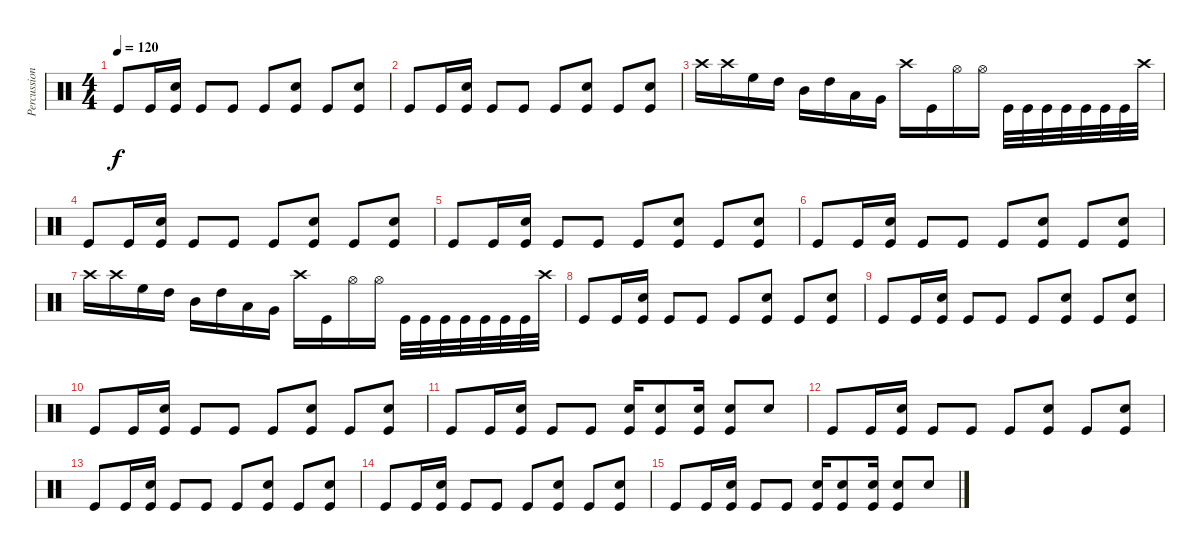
\track ("Percussion" "Percussion") {instrument percussion}
\staff {score}
\articulation defaults
\ts (4 4)
\tempo 120
\clef neutral
\ks c "Kick (hit)".8{dy f} "Kick (hit)".16
("Kick (hit)" "Snare (hit) 2").16 "Kick (hit)".8 "Kick (hit)".8 "Kick (hit)".8 ("Kick (hit)" "Snare (hit) 2").8 "Kick (hit)".8 ("Kick (hit)" "Snare (hit) 2").8 |
"Kick (hit)".8 "Kick (hit)".16 ("Kick (hit)" "Snare (hit) 2").16 "Kick (hit)".8 "Kick (hit)".8 "Kick (hit)".8 ("Kick (hit)" "Snare (hit) 2").8 "Kick (hit)".8 ("Kick (hit)" "Snare (hit) 2").8 |
"Crash high (hit)".16 "Crash high (hit)".16 "High Floor Tom (hit)".16 "High Tom (hit)".16 "Mid Tom (hit)".16 "High Tom (hit)".16 "Low Tom (hit)".16 "Very Low Tom (hit)".16 "Crash high (hit)".16 "Kick (hit)".16 "Hi-Hat (open)".16 "Hi-Hat (open)".16 "Kick (hit)".32 "Kick (hit)".32 "Kick (hit)".32 "Kick (hit)".32 "Kick (hit)".32 "Kick (hit)".32 "Kick (hit)".32 "Crash high (hit)".32 |
"Kick (hit)".8 "Kick (hit)".16 ("Kick (hit)" "Snare (hit) 2").16 "Kick (hit)".8 "Kick (hit)".8 "Kick (hit)".8 ("Kick (hit)" "Snare (hit) 2").8 "Kick (hit)".8 ("Kick (hit)" "Snare (hit) 2").8 |
"Kick (hit)".8 "Kick (hit)".16 ("Kick (hit)" "Snare (hit) 2").16 "Kick (hit)".8 "Kick (hit)".8 "Kick (hit)".8 ("Kick (hit)" "Snare (hit) 2").8 "Kick (hit)".8 ("Kick (hit)" "Snare (hit) 2").8 |
"Kick (hit)".8 "Kick (hit)".16 ("Kick (hit)" "Snare (hit) 2").16 "Kick (hit)".8 "Kick (hit)".8 "Kick (hit)".8 ("Kick (hit)" "Snare (hit) 2").8 "Kick (hit)".8 ("Kick (hit)" "Snare (hit) 2").8 |
"Crash high (hit)".16 "Crash high (hit)".16 "High Floor Tom (hit)".16 "High Tom (hit)".16 "Mid Tom (hit)".16 "High Tom (hit)".16 "Low Tom (hit)".16 "Very Low Tom (hit)".16 "Crash high (hit)".16 "Kick (hit)".16 "Hi-Hat (open)".16 "Hi-Hat (open)".16 "Kick (hit)".32 "Kick (hit)".32 "Kick (hit)".32 "Kick (hit)".32 "Kick (hit)".32 "Kick (hit)".32 "Kick (hit)".32 "Crash high (hit)".32 |
"Kick (hit)".8 "Kick (hit)".16 ("Kick (hit)" "Snare (hit) 2").16 "Kick (hit)".8 "Kick (hit)".8 "Kick (hit)".8 ("Kick (hit)" "Snare (hit) 2").8 "Kick (hit)".8 ("Kick (hit)" "Snare (hit) 2").8 |
"Kick (hit)".8 "Kick (hit)".16 ("Kick (hit)" "Snare (hit) 2").16 "Kick (hit)".8 "Kick (hit)".8 "Kick (hit)".8 ("Kick (hit)" "Snare (hit) 2").8 "Kick (hit)".8 ("Kick (hit)" "Snare (hit) 2").8 |
"Kick (hit)".8 "Kick (hit)".16 ("Kick (hit)" "Snare (hit) 2").16 "Kick (hit)".8 "Kick (hit)".8 "Kick (hit)".8 ("Kick (hit)" "Snare (hit) 2").8 "Kick (hit)".8 ("Kick (hit)" "Snare (hit) 2").8 |
"Kick (hit)".8 "Kick (hit)".16 ("Kick (hit)" "Snare (hit) 2").16 "Kick (hit)".8 "Kick (hit)".8 ("Kick (hit)" "Snare (hit) 2").16 ("Kick (hit)" "Snare (hit) 2").8 ("Kick (hit)" "Snare (hit) 2").16 ("Kick (hit)" "Snare (hit) 2").8 "Snare (hit) 2".8 |
"Kick (hit)".8 "Kick (hit)".16 ("Kick (hit)" "Snare (hit) 2").16 "Kick (hit)".8 "Kick (hit)".8 "Kick (hit)".8 ("Kick (hit)" "Snare (hit) 2").8 "Kick (hit)".8 ("Kick (hit)" "Snare (hit) 2").8 |
"Kick (hit)".8 "Kick (hit)".16 ("Kick (hit)" "Snare (hit) 2").16 "Kick (hit)".8 "Kick (hit)".8 "Kick (hit)".8 ("Kick (hit)" "Snare (hit) 2").8 "Kick (hit)".8 ("Kick (hit)" "Snare (hit) 2").8 |
"Kick (hit)".8 "Kick (hit)".16 ("Kick (hit)" "Snare (hit) 2").16 "Kick (hit)".8 "Kick (hit)".8 "Kick (hit)".8 ("Kick (hit)" "Snare (hit) 2").8 "Kick (hit)".8 ("Kick (hit)" "Snare (hit) 2").8 |
"Kick (hit)".8 "Kick (hit)".16 ("Kick (hit)" "Snare (hit) 2").16 "Kick (hit)".8 "Kick (hit)".8 ("Kick (hit)" "Snare (hit) 2").16 ("Kick (hit)" "Snare (hit) 2").8 ("Kick (hit)" "Snare (hit) 2").16 ("Kick (hit)" "Snare (hit) 2").8 "Snare (hit) 2".8
